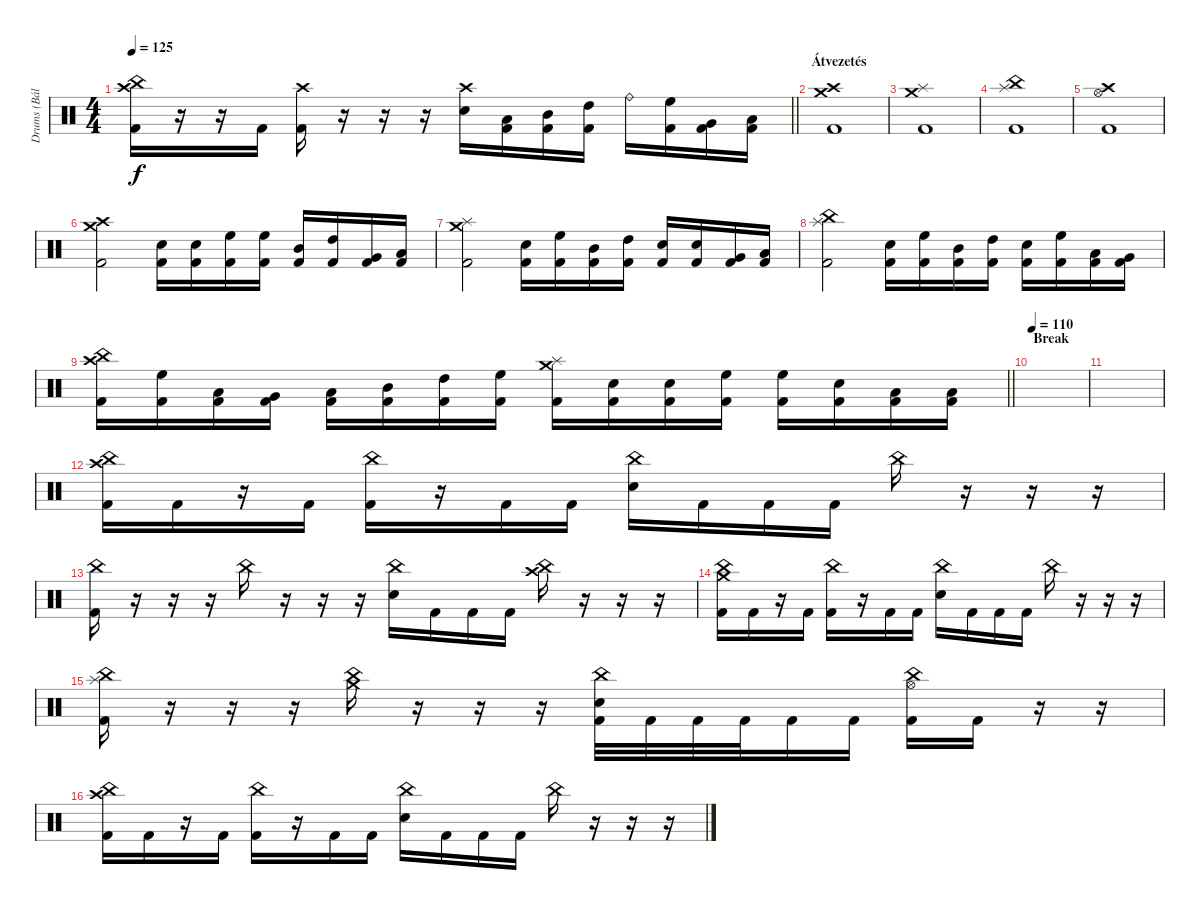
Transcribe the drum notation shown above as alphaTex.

\track ("Drums (Bálint)" "Drums (Bál") {instrument percussion}
\staff {score}
\articulation defaults
\ts (4 4)
\tempo 125
\clef neutral
\barLineRight lightlight
\ks c
("China (hit)" "Crash high (hit)" "Kick (hit) 2").16{dy f} r.16 r.16 "Kick (hit) 2".16 ("Crash high (hit)" "Kick (hit) 2").16 r.16 r.16 r.16 ("Crash high (hit)" "Electric Snare (hit)").16 ("Low Tom (hit)" "Kick (hit) 2").16 ("Mid Tom (hit)" "Kick (hit) 2").16 ("High Tom (hit)" "Kick (hit) 2").16 "Ride (bell)".16 ("High Floor Tom (hit)" "Kick (hit) 2").16 ("Very Low Tom (hit)" "Kick (hit) 2").16 ("Low Floor Tom (hit)" "Kick (hit) 2").16 |
\section ("" "Átvezetés")
("Crash high (hit)" "Crash medium (hit)" "Kick (hit) 2").1 |
("Splash (hit)" "Crash medium (hit)" "Kick (hit) 2").1 |
("China (hit)" "Splash (hit)" "Kick (hit) 2").1 |
("Crash high (hit)" "Hi-Hat (open)" "Kick (hit) 2").1 |
("Crash high (hit)" "Crash medium (hit)" "Kick (hit) 2").2 ("Electric Snare (hit)" "Kick (hit) 2").16 ("Electric Snare (hit)" "Kick (hit) 2").16 ("High Floor Tom (hit)" "Kick (hit) 2").16 ("High Floor Tom (hit)" "Kick (hit) 2").16 ("Mid Tom (hit)" "Kick (hit) 2").16 ("High Tom (hit)" "Kick (hit) 2").16 ("Very Low Tom (hit)" "Kick (hit) 2").16 ("Low Floor Tom (hit)" "Kick (hit) 2").16 |
("Crash medium (hit)" "Splash (hit)" "Kick (hit) 2").2 ("Electric Snare (hit)" "Kick (hit) 2").16 ("High Floor Tom (hit)" "Kick (hit) 2").16 ("Mid Tom (hit)" "Kick (hit) 2").16 ("High Tom (hit)" "Kick (hit) 2").16 ("Electric Snare (hit)" "Kick (hit) 2").16 ("Electric Snare (hit)" "Kick (hit) 2").16 ("Very Low Tom (hit)" "Kick (hit) 2").16 ("Low Floor Tom (hit)" "Kick (hit) 2").16 |
("China (hit)" "Splash (hit)" "Kick (hit) 2").2 ("Electric Snare (hit)" "Kick (hit) 2").16 ("High Floor Tom (hit)" "Kick (hit) 2").16 ("Mid Tom (hit)" "Kick (hit) 2").16 ("High Tom (hit)" "Kick (hit) 2").16 ("Electric Snare (hit)" "Kick (hit) 2").16 ("High Floor Tom (hit)" "Kick (hit) 2").16 ("Low Tom (hit)" "Kick (hit) 2").16 ("Very Low Tom (hit)" "Kick (hit) 2").16 |
\barLineRight lightlight
("Crash high (hit)" "China (hit)" "Kick (hit) 2").16 ("High Floor Tom (hit)" "Kick (hit) 2").16 ("Low Tom (hit)" "Kick (hit) 2").16 ("Very Low Tom (hit)" "Kick (hit) 2").16 ("Low Floor Tom (hit)" "Kick (hit) 2").16 ("Mid Tom (hit)" "Kick (hit) 2").16 ("High Tom (hit)" "Kick (hit) 2").16 ("High Floor Tom (hit)" "Kick (hit) 2").16 ("Splash (hit)" "Crash medium (hit)" "Kick (hit) 2").16 ("Electric Snare (hit)" "Kick (hit) 2").16 ("Electric Snare (hit)" "Kick (hit) 2").16 ("High Floor Tom (hit)" "Kick (hit) 2").16 ("High Floor Tom (hit)" "Kick (hit) 2").16 ("Electric Snare (hit)" "Kick (hit) 2").16 ("Low Tom (hit)" "Kick (hit) 2").16 ("Low Floor Tom (hit)" "Kick (hit) 2").16 |
\section ("" "Break")
\tempo 110
|
|
("Crash high (hit)" "China (hit)" "Kick (hit) 2").16 "Kick (hit) 2".16 r.16 "Kick (hit) 2".16 ("China (hit)" "Kick (hit) 2").16 r.16 "Kick (hit) 2".16 "Kick (hit) 2".16 ("China (hit)" "Snare (hit) 2").16 "Kick (hit) 2".16 "Kick (hit) 2".16 "Kick (hit) 2".16 "China (hit)".16 r.16 r.16 r.16 |
("China (hit)" "Kick (hit) 2").16 r.16 r.16 r.16 "China (hit)".16 r.16 r.16 r.16 ("China (hit)" "Electric Snare (hit)").16 "Kick (hit) 2".16 "Kick (hit) 2".16 "Kick (hit) 2".16 ("Crash high (hit)" "China (hit)").16 r.16 r.16 r.16 |
("Crash medium (hit)" "China (hit)" "Kick (hit) 2").16 "Kick (hit) 2".16 r.16 "Kick (hit) 2".16 ("China (hit)" "Kick (hit) 2").16 r.16 "Kick (hit) 2".16 "Kick (hit) 2".16 ("China (hit)" "Snare (hit) 2").16 "Kick (hit) 2".16 "Kick (hit) 2".16 "Kick (hit) 2".16 "China (hit)".16 r.16 r.16 r.16 |
("Splash (hit)" "China (hit)" "Kick (hit) 2").16 r.16 r.16 r.16 ("Crash medium (hit)" "China (hit)").16 r.16 r.16 r.16 ("China (hit)" "Electric Snare (hit)" "Kick (hit) 2").32 "Kick (hit) 2".32 "Kick (hit) 2".32 "Kick (hit) 2".32 "Kick (hit) 2".16 "Kick (hit) 2".16 ("Hi-Hat (open)" "China (hit)" "Kick (hit) 2").16 "Kick (hit) 2".16 r.16 r.16 |
("Crash high (hit)" "China (hit)" "Kick (hit) 2").16 "Kick (hit) 2".16 r.16 "Kick (hit) 2".16 ("China (hit)" "Kick (hit) 2").16 r.16 "Kick (hit) 2".16 "Kick (hit) 2".16 ("China (hit)" "Snare (hit) 2").16 "Kick (hit) 2".16 "Kick (hit) 2".16 "Kick (hit) 2".16 "China (hit)".16 r.16 r.16 r.16
